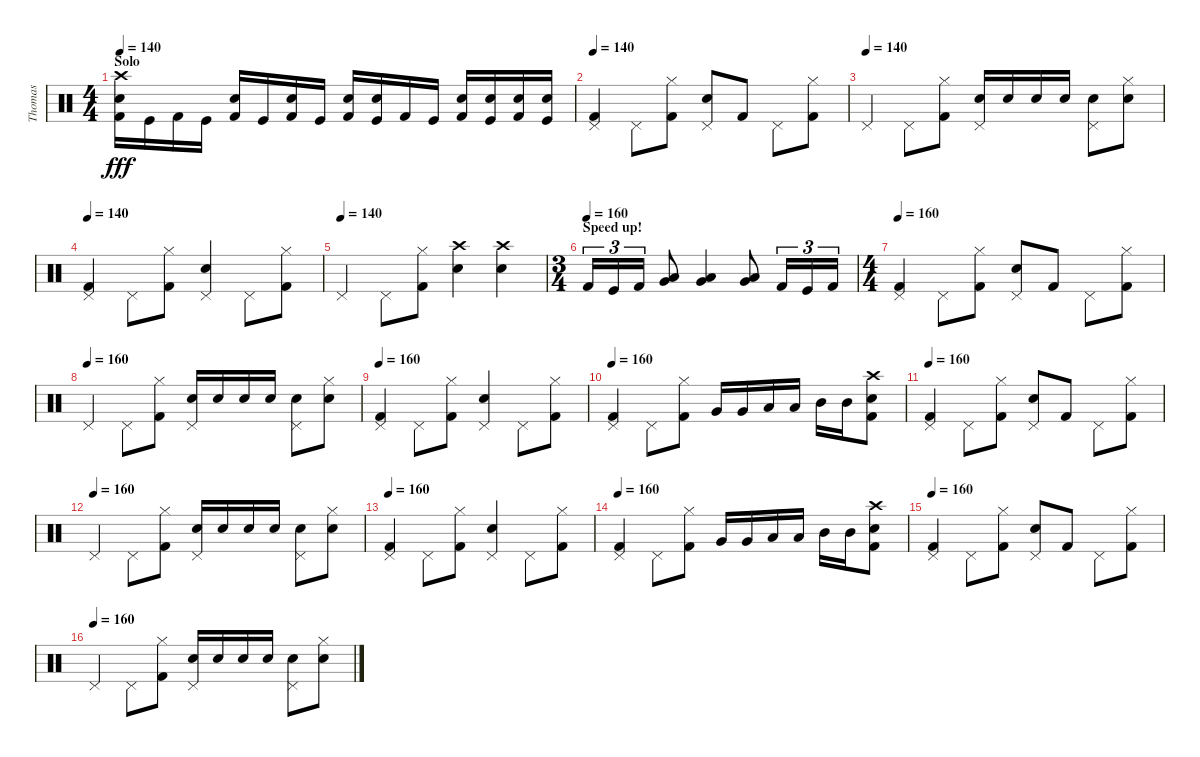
\track ("Thomas" "Thomas") {instrument percussion}
\staff {score}
\articulation defaults
\ts (4 4)
\section ("" "Solo")
\tempo 140
\clef neutral
\ks c
("Crash high (hit)" "Snare (hit) 2" "Kick (hit) 2").16{dy fff} "Kick (hit)".16 "Kick (hit) 2".16 "Kick (hit)".16 ("Snare (hit) 2" "Kick (hit) 2").16 "Kick (hit)".16 ("Snare (hit) 2" "Kick (hit) 2").16 "Kick (hit)".16 ("Snare (hit) 2" "Kick (hit) 2").16 ("Snare (hit) 2" "Kick (hit)").16 "Kick (hit) 2".16 "Kick (hit)".16 ("Snare (hit) 2" "Kick (hit) 2").16 ("Snare (hit) 2" "Kick (hit)").16 ("Snare (hit) 2" "Kick (hit) 2").16 ("Snare (hit) 2" "Kick (hit)").16 |
\tempo 140
("Pedal Hi-Hat (hit)" "Kick (hit) 2").4 "Pedal Hi-Hat (hit)".8 ("Hi-Hat (closed)" "Kick (hit) 2").8 ("Pedal Hi-Hat (hit)" "Snare (hit) 2").8 "Kick (hit) 2".8 "Pedal Hi-Hat (hit)".8 ("Hi-Hat (closed)" "Kick (hit) 2").8 |
\tempo (140)
"Pedal Hi-Hat (hit)".4 "Pedal Hi-Hat (hit)".8 ("Hi-Hat (closed)" "Kick (hit) 2").8 ("Pedal Hi-Hat (hit)" "Snare (hit) 2").16 "Snare (hit) 2".16 "Snare (hit) 2".16 "Snare (hit) 2".16 ("Pedal Hi-Hat (hit)" "Snare (hit) 2").8 ("Hi-Hat (closed)" "Snare (hit) 2").8 |
\tempo 140
("Pedal Hi-Hat (hit)" "Kick (hit) 2").4 "Pedal Hi-Hat (hit)".8 ("Hi-Hat (closed)" "Kick (hit) 2").8 ("Pedal Hi-Hat (hit)" "Snare (hit) 2").4 "Pedal Hi-Hat (hit)".8 ("Hi-Hat (closed)" "Kick (hit) 2").8 |
\tempo (140)
"Pedal Hi-Hat (hit)".4 "Pedal Hi-Hat (hit)".8 ("Hi-Hat (closed)" "Kick (hit) 2").8 ("Crash high (hit)" "Snare (hit) 2").4 ("Crash high (hit)" "Snare (hit) 2").4 |
\ts (3 4)
\section ("" "Speed up!")
\tempo (160)
"Kick (hit) 2".16{tu (3 2)} "Kick (hit)".16{tu (3 2)} "Kick (hit) 2".16{tu (3 2)} ("Low Tom (hit)" "Very Low Tom (hit)").8 ("Low Tom (hit)" "Very Low Tom (hit)").4 ("Low Tom (hit)" "Very Low Tom (hit)").8 "Kick (hit) 2".16{tu (3 2)} "Kick (hit)".16{tu (3 2)} "Kick (hit) 2".16{tu (3 2)} |
\ts (4 4)
\tempo 160
("Pedal Hi-Hat (hit)" "Kick (hit) 2").4 "Pedal Hi-Hat (hit)".8 ("Hi-Hat (closed)" "Kick (hit) 2").8 ("Pedal Hi-Hat (hit)" "Snare (hit) 2").8 "Kick (hit) 2".8 "Pedal Hi-Hat (hit)".8 ("Hi-Hat (closed)" "Kick (hit) 2").8 |
\tempo (160)
"Pedal Hi-Hat (hit)".4 "Pedal Hi-Hat (hit)".8 ("Hi-Hat (closed)" "Kick (hit) 2").8 ("Pedal Hi-Hat (hit)" "Snare (hit) 2").16 "Snare (hit) 2".16 "Snare (hit) 2".16 "Snare (hit) 2".16 ("Pedal Hi-Hat (hit)" "Snare (hit) 2").8 ("Hi-Hat (closed)" "Snare (hit) 2").8 |
\tempo 160
("Pedal Hi-Hat (hit)" "Kick (hit) 2").4 "Pedal Hi-Hat (hit)".8 ("Hi-Hat (closed)" "Kick (hit) 2").8 ("Pedal Hi-Hat (hit)" "Snare (hit) 2").4 "Pedal Hi-Hat (hit)".8 ("Hi-Hat (closed)" "Kick (hit) 2").8 |
\tempo 160
("Pedal Hi-Hat (hit)" "Kick (hit) 2").4 "Pedal Hi-Hat (hit)".8 ("Hi-Hat (closed)" "Kick (hit) 2").8 "Very Low Tom (hit)".16 "Very Low Tom (hit)".16 "Low Tom (hit)".16 "Low Tom (hit)".16 "Mid Tom (hit)".16 "Mid Tom (hit)".16 ("Crash high (hit)" "Snare (hit) 2" "Kick (hit) 2").8 |
\tempo 160
("Pedal Hi-Hat (hit)" "Kick (hit) 2").4 "Pedal Hi-Hat (hit)".8 ("Hi-Hat (closed)" "Kick (hit) 2").8 ("Pedal Hi-Hat (hit)" "Snare (hit) 2").8 "Kick (hit) 2".8 "Pedal Hi-Hat (hit)".8 ("Hi-Hat (closed)" "Kick (hit) 2").8 |
\tempo (160)
"Pedal Hi-Hat (hit)".4 "Pedal Hi-Hat (hit)".8 ("Hi-Hat (closed)" "Kick (hit) 2").8 ("Pedal Hi-Hat (hit)" "Snare (hit) 2").16 "Snare (hit) 2".16 "Snare (hit) 2".16 "Snare (hit) 2".16 ("Pedal Hi-Hat (hit)" "Snare (hit) 2").8 ("Hi-Hat (closed)" "Snare (hit) 2").8 |
\tempo 160
("Pedal Hi-Hat (hit)" "Kick (hit) 2").4 "Pedal Hi-Hat (hit)".8 ("Hi-Hat (closed)" "Kick (hit) 2").8 ("Pedal Hi-Hat (hit)" "Snare (hit) 2").4 "Pedal Hi-Hat (hit)".8 ("Hi-Hat (closed)" "Kick (hit) 2").8 |
\tempo 160
("Pedal Hi-Hat (hit)" "Kick (hit) 2").4 "Pedal Hi-Hat (hit)".8 ("Hi-Hat (closed)" "Kick (hit) 2").8 "Very Low Tom (hit)".16 "Very Low Tom (hit)".16 "Low Tom (hit)".16 "Low Tom (hit)".16 "Mid Tom (hit)".16 "Mid Tom (hit)".16 ("Crash high (hit)" "Snare (hit) 2" "Kick (hit) 2").8 |
\tempo 160
("Pedal Hi-Hat (hit)" "Kick (hit) 2").4 "Pedal Hi-Hat (hit)".8 ("Hi-Hat (closed)" "Kick (hit) 2").8 ("Pedal Hi-Hat (hit)" "Snare (hit) 2").8 "Kick (hit) 2".8 "Pedal Hi-Hat (hit)".8 ("Hi-Hat (closed)" "Kick (hit) 2").8 |
\tempo (160)
"Pedal Hi-Hat (hit)".4 "Pedal Hi-Hat (hit)".8 ("Hi-Hat (closed)" "Kick (hit) 2").8 ("Pedal Hi-Hat (hit)" "Snare (hit) 2").16 "Snare (hit) 2".16 "Snare (hit) 2".16 "Snare (hit) 2".16 ("Pedal Hi-Hat (hit)" "Snare (hit) 2").8 ("Hi-Hat (closed)" "Snare (hit) 2").8
